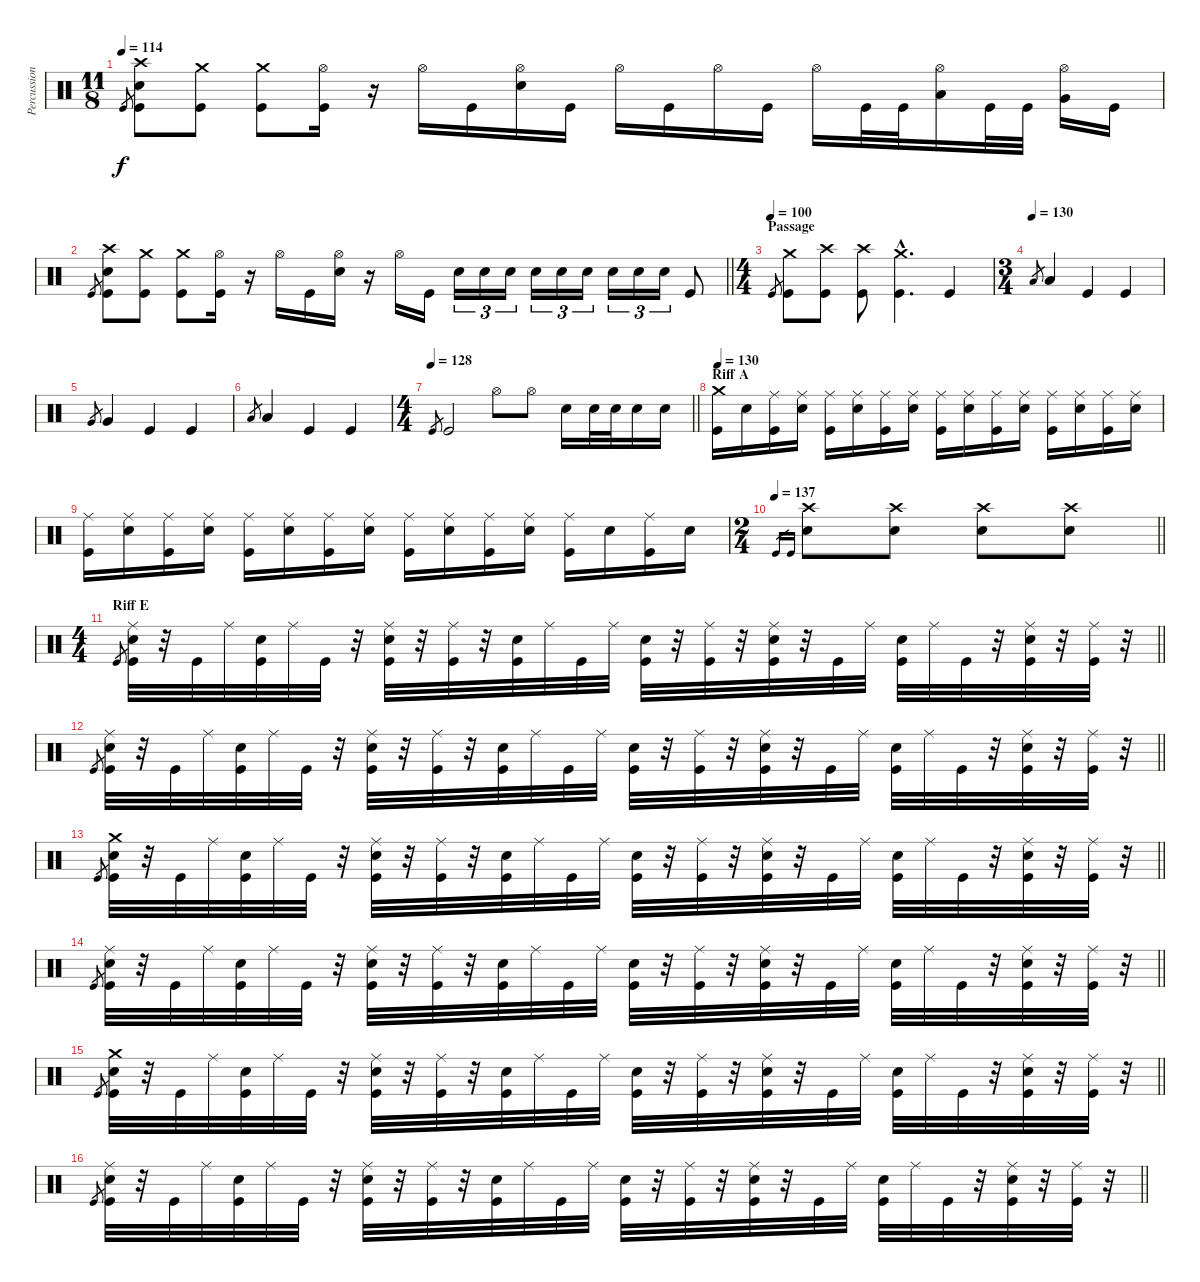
\track ("Percussion" "Percussion") {instrument percussion}
\staff {score}
\articulation defaults
\ts (11 8)
\tempo 114
\clef neutral
\ks c "Kick (hit)".8{gr dy f}
("Kick (hit)" "Snare (hit) 2" "Crash high (hit)").8 ("Kick (hit)" "Crash medium (hit)").8 ("Kick (hit)" "Crash medium (hit)").8 ("Kick (hit)" "Hi-Hat (open)").16 r.16 "Hi-Hat (open)".16 "Kick (hit)".16 ("Snare (hit) 2" "Hi-Hat (open)").16 "Kick (hit)".16 "Hi-Hat (open)".16 "Kick (hit)".16 "Hi-Hat (open)".16 "Kick (hit)".16 "Hi-Hat (open)".16 "Kick (hit)".32 "Kick (hit)".32 ("Low Tom (hit)" "Hi-Hat (open)").16 "Kick (hit)".32 "Kick (hit)".32 ("Very Low Tom (hit)" "Hi-Hat (open)").16 "Kick (hit)".16 |
\barLineRight lightlight "Kick (hit)".8{gr}
("Kick (hit)" "Snare (hit) 2" "Crash high (hit)").8 ("Kick (hit)" "Crash medium (hit)").8 ("Kick (hit)" "Crash medium (hit)").8 ("Kick (hit)" "Hi-Hat (open)").16 r.16 "Hi-Hat (open)".16 "Kick (hit)".16 ("Snare (hit) 2" "Hi-Hat (open)").16 r.16 "Hi-Hat (open)".16 "Kick (hit)".16 "Snare (hit) 2".16{tu (3 2)} "Snare (hit) 2".16{tu (3 2)} "Snare (hit) 2".16{tu (3 2)} "Snare (hit) 2".16{tu (3 2)} "Snare (hit) 2".16{tu (3 2)} "Snare (hit) 2".16{tu (3 2)} "Snare (hit) 2".16{tu (3 2)} "Snare (hit) 2".16{tu (3 2)} "Snare (hit) 2".16{tu (3 2)} "Kick (hit)".8 |
\ts (4 4)
\section ("" "Passage")
\tempo (100)
"Kick (hit)".8{gr} ("Kick (hit)" "Crash medium (hit)").8 ("Kick (hit)" "Crash high (hit)").8 ("Kick (hit)" "Crash high (hit)").8 ("Kick (hit)"{hac} "Crash medium (hit)"{hac}).4{d} "Kick (hit)".4 |
\ts (3 4)
\tempo (130)
"Low Tom (hit)".8{gr} "Low Tom (hit)".4 "Kick (hit)".4 "Kick (hit)".4 |
"Very Low Tom (hit)".8{gr} "Very Low Tom (hit)".4 "Kick (hit)".4 "Kick (hit)".4 |
"Low Floor Tom (hit)".8{gr} "Low Floor Tom (hit)".4 "Kick (hit)".4 "Kick (hit)".4 |
\ts (4 4)
\tempo 128
\barLineRight lightlight "Kick (hit)".8{gr} "Kick (hit)".2 "Hi-Hat (open)".8 "Hi-Hat (open)".8 "Snare (hit) 2".16 "Snare (hit) 2".32 "Snare (hit) 2".32 "Snare (hit) 2".16 "Snare (hit) 2".16
|
\section ("" "Riff A")
\tempo 130
("Kick (hit)" "Crash medium (hit)").16 "Snare (hit) 2".16 ("Kick (hit)" "Ride (middle)").16 ("Snare (hit) 2" "Ride (middle)").16 ("Kick (hit)" "Ride (middle)").16 ("Snare (hit) 2" "Ride (middle)").16 ("Kick (hit)" "Ride (middle)").16 ("Snare (hit) 2" "Ride (middle)").16 ("Kick (hit)" "Ride (middle)").16 ("Snare (hit) 2" "Ride (middle)").16 ("Kick (hit)" "Ride (middle)").16 ("Snare (hit) 2" "Ride (middle)").16 ("Kick (hit)" "Ride (middle)").16 ("Snare (hit) 2" "Ride (middle)").16 ("Kick (hit)" "Ride (middle)").16 ("Snare (hit) 2" "Ride (middle)").16 |
("Kick (hit)" "Ride (middle)").16 ("Snare (hit) 2" "Ride (middle)").16 ("Kick (hit)" "Ride (middle)").16 ("Snare (hit) 2" "Ride (middle)").16 ("Kick (hit)" "Ride (middle)").16 ("Snare (hit) 2" "Ride (middle)").16 ("Kick (hit)" "Ride (middle)").16 ("Snare (hit) 2" "Ride (middle)").16 ("Kick (hit)" "Ride (middle)").16 ("Snare (hit) 2" "Ride (middle)").16 ("Kick (hit)" "Ride (middle)").16 ("Snare (hit) 2" "Ride (middle)").16 ("Kick (hit)" "Ride (middle)").16 "Snare (hit) 2".16 ("Kick (hit)" "Ride (middle)").16 "Snare (hit) 2".16 |
\ts (2 4)
\tempo 137
\barLineRight lightlight "Kick (hit)".16{gr} "Kick (hit)".16{gr}
("Snare (hit) 2" "Crash high (hit)").8 ("Snare (hit) 2" "Crash high (hit)").8 ("Snare (hit) 2" "Crash high (hit)").8 ("Snare (hit) 2" "Crash high (hit)").8 |
\ts (4 4)
\section ("" "Riff E")
\barLineRight lightlight "Kick (hit)".8{gr}
("Kick (hit)" "Snare (hit) 2" "Ride (middle)").32 r.32 "Kick (hit)".32 "Ride (middle)".32 ("Kick (hit)" "Snare (hit) 2").32 "Ride (middle)".32 "Kick (hit)".32 r.32 ("Kick (hit)" "Snare (hit) 2" "Ride (middle)").32 r.32 ("Kick (hit)" "Ride (middle)").32 r.32 ("Kick (hit)" "Snare (hit) 2").32 "Ride (middle)".32 "Kick (hit)".32 "Ride (middle)".32 ("Kick (hit)" "Snare (hit) 2").32 r.32 ("Kick (hit)" "Ride (middle)").32 r.32 ("Kick (hit)" "Snare (hit) 2" "Ride (middle)").32 r.32 "Kick (hit)".32 "Ride (middle)".32 ("Kick (hit)" "Snare (hit) 2").32 "Ride (middle)".32 "Kick (hit)".32 r.32 ("Kick (hit)" "Snare (hit) 2" "Ride (middle)").32 r.32 ("Kick (hit)" "Ride (middle)").32 r.32 |
\barLineRight lightlight "Kick (hit)".8{gr}
("Kick (hit)" "Snare (hit) 2" "Ride (middle)").32 r.32 "Kick (hit)".32 "Ride (middle)".32 ("Kick (hit)" "Snare (hit) 2").32 "Ride (middle)".32 "Kick (hit)".32 r.32 ("Kick (hit)" "Snare (hit) 2" "Ride (middle)").32 r.32 ("Kick (hit)" "Ride (middle)").32 r.32 ("Kick (hit)" "Snare (hit) 2").32 "Ride (middle)".32 "Kick (hit)".32 "Ride (middle)".32 ("Kick (hit)" "Snare (hit) 2").32 r.32 ("Kick (hit)" "Ride (middle)").32 r.32 ("Kick (hit)" "Snare (hit) 2" "Ride (middle)").32 r.32 "Kick (hit)".32 "Ride (middle)".32 ("Kick (hit)" "Snare (hit) 2").32 "Ride (middle)".32 "Kick (hit)".32 r.32 ("Kick (hit)" "Snare (hit) 2" "Ride (middle)").32 r.32 ("Kick (hit)" "Ride (middle)").32 r.32 |
\barLineRight lightlight "Kick (hit)".8{gr}
("Kick (hit)" "Snare (hit) 2" "Crash medium (hit)").32 r.32 "Kick (hit)".32 "Ride (middle)".32 ("Kick (hit)" "Snare (hit) 2").32 "Ride (middle)".32 "Kick (hit)".32 r.32 ("Kick (hit)" "Snare (hit) 2" "Ride (middle)").32 r.32 ("Kick (hit)" "Ride (middle)").32 r.32 ("Kick (hit)" "Snare (hit) 2").32 "Ride (middle)".32 "Kick (hit)".32 "Ride (middle)".32 ("Kick (hit)" "Snare (hit) 2").32 r.32 ("Kick (hit)" "Ride (middle)").32 r.32 ("Kick (hit)" "Snare (hit) 2" "Ride (middle)").32 r.32 "Kick (hit)".32 "Ride (middle)".32 ("Kick (hit)" "Snare (hit) 2").32 "Ride (middle)".32 "Kick (hit)".32 r.32 ("Kick (hit)" "Snare (hit) 2" "Ride (middle)").32 r.32 ("Kick (hit)" "Ride (middle)").32 r.32 |
\barLineRight lightlight "Kick (hit)".8{gr}
("Kick (hit)" "Snare (hit) 2" "Ride (middle)").32 r.32 "Kick (hit)".32 "Ride (middle)".32 ("Kick (hit)" "Snare (hit) 2").32 "Ride (middle)".32 "Kick (hit)".32 r.32 ("Kick (hit)" "Snare (hit) 2" "Ride (middle)").32 r.32 ("Kick (hit)" "Ride (middle)").32 r.32 ("Kick (hit)" "Snare (hit) 2").32 "Ride (middle)".32 "Kick (hit)".32 "Ride (middle)".32 ("Kick (hit)" "Snare (hit) 2").32 r.32 ("Kick (hit)" "Ride (middle)").32 r.32 ("Kick (hit)" "Snare (hit) 2" "Ride (middle)").32 r.32 "Kick (hit)".32 "Ride (middle)".32 ("Kick (hit)" "Snare (hit) 2").32 "Ride (middle)".32 "Kick (hit)".32 r.32 ("Kick (hit)" "Snare (hit) 2" "Ride (middle)").32 r.32 ("Kick (hit)" "Ride (middle)").32 r.32 |
\barLineRight lightlight "Kick (hit)".8{gr}
("Kick (hit)" "Snare (hit) 2" "Crash medium (hit)").32 r.32 "Kick (hit)".32 "Ride (middle)".32 ("Kick (hit)" "Snare (hit) 2").32 "Ride (middle)".32 "Kick (hit)".32 r.32 ("Kick (hit)" "Snare (hit) 2" "Ride (middle)").32 r.32 ("Kick (hit)" "Ride (middle)").32 r.32 ("Kick (hit)" "Snare (hit) 2").32 "Ride (middle)".32 "Kick (hit)".32 "Ride (middle)".32 ("Kick (hit)" "Snare (hit) 2").32 r.32 ("Kick (hit)" "Ride (middle)").32 r.32 ("Kick (hit)" "Snare (hit) 2" "Ride (middle)").32 r.32 "Kick (hit)".32 "Ride (middle)".32 ("Kick (hit)" "Snare (hit) 2").32 "Ride (middle)".32 "Kick (hit)".32 r.32 ("Kick (hit)" "Snare (hit) 2" "Ride (middle)").32 r.32 ("Kick (hit)" "Ride (middle)").32 r.32 |
\barLineRight lightlight "Kick (hit)".8{gr}
("Kick (hit)" "Snare (hit) 2" "Ride (middle)").32 r.32 "Kick (hit)".32 "Ride (middle)".32 ("Kick (hit)" "Snare (hit) 2").32 "Ride (middle)".32 "Kick (hit)".32 r.32 ("Kick (hit)" "Snare (hit) 2" "Ride (middle)").32 r.32 ("Kick (hit)" "Ride (middle)").32 r.32 ("Kick (hit)" "Snare (hit) 2").32 "Ride (middle)".32 "Kick (hit)".32 "Ride (middle)".32 ("Kick (hit)" "Snare (hit) 2").32 r.32 ("Kick (hit)" "Ride (middle)").32 r.32 ("Kick (hit)" "Snare (hit) 2" "Ride (middle)").32 r.32 "Kick (hit)".32 "Ride (middle)".32 ("Kick (hit)" "Snare (hit) 2").32 "Ride (middle)".32 "Kick (hit)".32 r.32 ("Kick (hit)" "Snare (hit) 2" "Ride (middle)").32 r.32 ("Kick (hit)" "Ride (middle)").32 r.32
